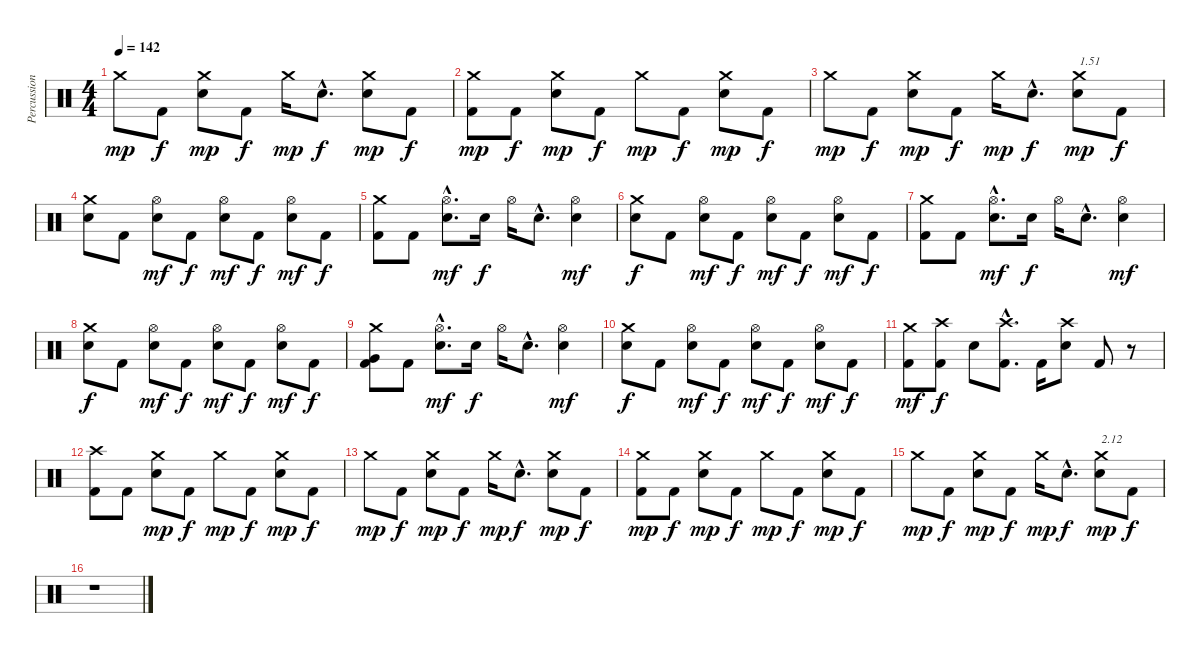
\track ("Percussions" "Percussion") {instrument percussion}
\staff {score}
\articulation defaults
\ts (4 4)
\tempo 142
\clef neutral
\ks c "Crash medium (hit)".8{dy mp} "Kick (hit) 2".8{dy f}
("Electric Snare (hit)" "Crash medium (hit)").8{dy mp} "Kick (hit) 2".8{dy f} "Crash medium (hit)".16{dy mp} "Electric Snare (hit)"{hac}.8{d dy f} ("Electric Snare (hit)" "Crash medium (hit)").8{dy mp} "Kick (hit) 2".8{dy f} |
("Kick (hit) 2" "Crash medium (hit)").8{dy mp} "Kick (hit) 2".8{dy f} ("Electric Snare (hit)" "Crash medium (hit)").8{dy mp} "Kick (hit) 2".8{dy f} "Crash medium (hit)".8{dy mp} "Kick (hit) 2".8{dy f} ("Electric Snare (hit)" "Crash medium (hit)").8{dy mp} "Kick (hit) 2".8{dy f} |
"Crash medium (hit)".8{dy mp} "Kick (hit) 2".8{dy f} ("Electric Snare (hit)" "Crash medium (hit)").8{dy mp} "Kick (hit) 2".8{dy f} "Crash medium (hit)".16{dy mp} "Electric Snare (hit)"{hac}.8{d dy f} ("Electric Snare (hit)" "Crash medium (hit)").8{txt "1.51" dy mp} "Kick (hit) 2".8{dy f} |
("Electric Snare (hit)" "Crash medium (hit)").8 "Kick (hit) 2".8 ("Electric Snare (hit)" "Hi-Hat (open)").8{dy mf} "Kick (hit) 2".8{dy f} ("Electric Snare (hit)" "Hi-Hat (open)").8{dy mf} "Kick (hit) 2".8{dy f} ("Electric Snare (hit)" "Hi-Hat (open)").8{dy mf} "Kick (hit) 2".8{dy f} |
("Kick (hit) 2" "Crash medium (hit)").8 "Kick (hit) 2".8 ("Electric Snare (hit)"{hac} "Hi-Hat (open)"{hac}).8{d dy mf} "Electric Snare (hit)".16{dy f} "Hi-Hat (open)".16 "Electric Snare (hit)"{hac}.8{d} ("Electric Snare (hit)" "Hi-Hat (open)").4{dy mf} |
("Electric Snare (hit)" "Crash medium (hit)").8{dy f} "Kick (hit) 2".8 ("Electric Snare (hit)" "Hi-Hat (open)").8{dy mf} "Kick (hit) 2".8{dy f} ("Electric Snare (hit)" "Hi-Hat (open)").8{dy mf} "Kick (hit) 2".8{dy f} ("Electric Snare (hit)" "Hi-Hat (open)").8{dy mf} "Kick (hit) 2".8{dy f} |
("Kick (hit) 2" "Crash medium (hit)").8 "Kick (hit) 2".8 ("Electric Snare (hit)"{hac} "Hi-Hat (open)"{hac}).8{d dy mf} "Electric Snare (hit)".16{dy f} "Hi-Hat (open)".16 "Electric Snare (hit)"{hac}.8{d} ("Electric Snare (hit)" "Hi-Hat (open)").4{dy mf} |
("Electric Snare (hit)" "Crash medium (hit)").8{dy f} "Kick (hit) 2".8 ("Electric Snare (hit)" "Hi-Hat (open)").8{dy mf} "Kick (hit) 2".8{dy f} ("Electric Snare (hit)" "Hi-Hat (open)").8{dy mf} "Kick (hit) 2".8{dy f} ("Electric Snare (hit)" "Hi-Hat (open)").8{dy mf} "Kick (hit) 2".8{dy f} |
("Kick (hit) 2" "Very Low Tom (hit)" "Crash medium (hit)").8 "Kick (hit) 2".8 ("Electric Snare (hit)"{hac} "Hi-Hat (open)"{hac}).8{d dy mf} "Electric Snare (hit)".16{dy f} "Hi-Hat (open)".16 "Electric Snare (hit)"{hac}.8{d} ("Electric Snare (hit)" "Hi-Hat (open)").4{dy mf} |
("Electric Snare (hit)" "Crash medium (hit)").8{dy f} "Kick (hit) 2".8 ("Electric Snare (hit)" "Hi-Hat (open)").8{dy mf} "Kick (hit) 2".8{dy f} ("Electric Snare (hit)" "Hi-Hat (open)").8{dy mf} "Kick (hit) 2".8{dy f} ("Electric Snare (hit)" "Hi-Hat (open)").8{dy mf} "Kick (hit) 2".8{dy f} |
("Kick (hit) 2" "Crash medium (hit)").8{dy mf} ("Kick (hit) 2" "Crash high (hit)").8{dy f} "Electric Snare (hit)".8 ("Kick (hit) 2"{hac} "Crash high (hit)"{hac}).8{d} "Kick (hit) 2".16 ("Electric Snare (hit)" "Crash high (hit)").8 "Kick (hit) 2".8 r.8 |
("Kick (hit) 2" "Crash high (hit)").8 "Kick (hit) 2".8 ("Electric Snare (hit)" "Crash medium (hit)").8{dy mp} "Kick (hit) 2".8{dy f} "Crash medium (hit)".8{dy mp} "Kick (hit) 2".8{dy f} ("Electric Snare (hit)" "Crash medium (hit)").8{dy mp} "Kick (hit) 2".8{dy f} |
"Crash medium (hit)".8{dy mp} "Kick (hit) 2".8{dy f} ("Electric Snare (hit)" "Crash medium (hit)").8{dy mp} "Kick (hit) 2".8{dy f} "Crash medium (hit)".16{dy mp} "Electric Snare (hit)"{hac}.8{d dy f} ("Electric Snare (hit)" "Crash medium (hit)").8{dy mp} "Kick (hit) 2".8{dy f} |
("Kick (hit) 2" "Crash medium (hit)").8{dy mp} "Kick (hit) 2".8{dy f} ("Electric Snare (hit)" "Crash medium (hit)").8{dy mp} "Kick (hit) 2".8{dy f} "Crash medium (hit)".8{dy mp} "Kick (hit) 2".8{dy f} ("Electric Snare (hit)" "Crash medium (hit)").8{dy mp} "Kick (hit) 2".8{dy f} |
"Crash medium (hit)".8{dy mp} "Kick (hit) 2".8{dy f} ("Electric Snare (hit)" "Crash medium (hit)").8{dy mp} "Kick (hit) 2".8{dy f} "Crash medium (hit)".16{dy mp} "Electric Snare (hit)"{hac}.8{d dy f} ("Electric Snare (hit)" "Crash medium (hit)").8{txt "2.12" dy mp} "Kick (hit) 2".8{dy f} |
r.1
